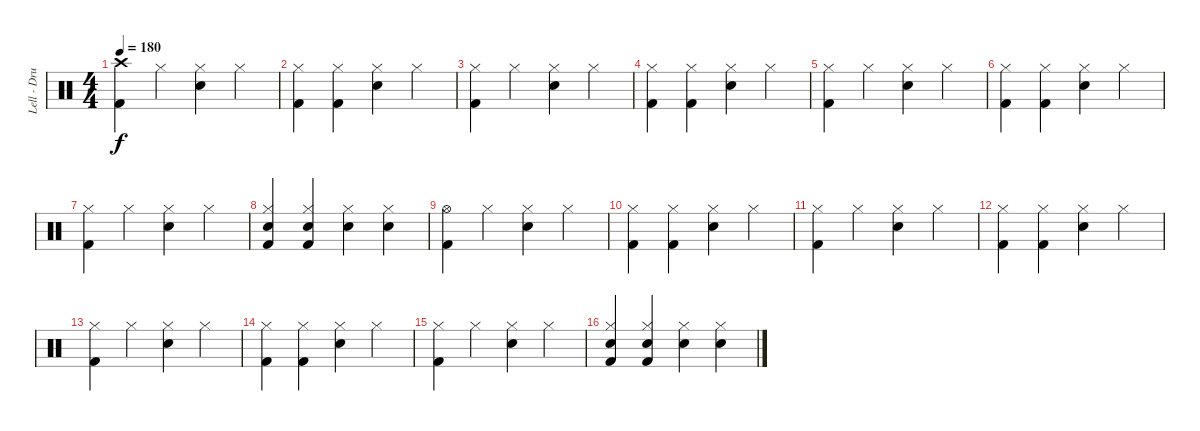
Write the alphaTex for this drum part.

\track ("Lell - Drums" "Lell - Dru") {instrument percussion}
\staff {score}
\articulation defaults
\ts (4 4)
\tempo 180
\clef neutral
\ks c
("Crash high (hit)" "Kick (hit) 2").4{dy f} "Hi-Hat (closed)".4 ("Hi-Hat (closed)" "Snare (hit) 2").4 "Hi-Hat (closed)".4 |
("Hi-Hat (closed)" "Kick (hit) 2").4 ("Hi-Hat (closed)" "Kick (hit) 2").4 ("Hi-Hat (closed)" "Snare (hit) 2").4 "Hi-Hat (closed)".4 |
("Hi-Hat (closed)" "Kick (hit) 2").4 "Hi-Hat (closed)".4 ("Hi-Hat (closed)" "Snare (hit) 2").4 "Hi-Hat (closed)".4 |
("Hi-Hat (closed)" "Kick (hit) 2").4 ("Hi-Hat (closed)" "Kick (hit) 2").4 ("Hi-Hat (closed)" "Snare (hit) 2").4 "Hi-Hat (closed)".4 |
("Hi-Hat (closed)" "Kick (hit) 2").4 "Hi-Hat (closed)".4 ("Hi-Hat (closed)" "Snare (hit) 2").4 "Hi-Hat (closed)".4 |
("Hi-Hat (closed)" "Kick (hit) 2").4 ("Hi-Hat (closed)" "Kick (hit) 2").4 ("Hi-Hat (closed)" "Snare (hit) 2").4 "Hi-Hat (closed)".4 |
("Hi-Hat (closed)" "Kick (hit) 2").4 "Hi-Hat (closed)".4 ("Hi-Hat (closed)" "Snare (hit) 2").4 "Hi-Hat (closed)".4 |
("Hi-Hat (closed)" "Snare (hit) 2" "Kick (hit) 2").4 ("Hi-Hat (closed)" "Snare (hit) 2" "Kick (hit) 2").4 ("Hi-Hat (closed)" "Snare (hit) 2").4 ("Hi-Hat (closed)" "Snare (hit) 2").4 |
("Hi-Hat (open)" "Kick (hit) 2").4 "Hi-Hat (closed)".4 ("Hi-Hat (closed)" "Snare (hit) 2").4 "Hi-Hat (closed)".4 |
("Hi-Hat (closed)" "Kick (hit) 2").4 ("Hi-Hat (closed)" "Kick (hit) 2").4 ("Hi-Hat (closed)" "Snare (hit) 2").4 "Hi-Hat (closed)".4 |
("Hi-Hat (closed)" "Kick (hit) 2").4 "Hi-Hat (closed)".4 ("Hi-Hat (closed)" "Snare (hit) 2").4 "Hi-Hat (closed)".4 |
("Hi-Hat (closed)" "Kick (hit) 2").4 ("Hi-Hat (closed)" "Kick (hit) 2").4 ("Hi-Hat (closed)" "Snare (hit) 2").4 "Hi-Hat (closed)".4 |
("Hi-Hat (closed)" "Kick (hit) 2").4 "Hi-Hat (closed)".4 ("Hi-Hat (closed)" "Snare (hit) 2").4 "Hi-Hat (closed)".4 |
("Hi-Hat (closed)" "Kick (hit) 2").4 ("Hi-Hat (closed)" "Kick (hit) 2").4 ("Hi-Hat (closed)" "Snare (hit) 2").4 "Hi-Hat (closed)".4 |
("Hi-Hat (closed)" "Kick (hit) 2").4 "Hi-Hat (closed)".4 ("Hi-Hat (closed)" "Snare (hit) 2").4 "Hi-Hat (closed)".4 |
("Hi-Hat (closed)" "Snare (hit) 2" "Kick (hit) 2").4 ("Hi-Hat (closed)" "Snare (hit) 2" "Kick (hit) 2").4 ("Hi-Hat (closed)" "Snare (hit) 2").4 ("Hi-Hat (closed)" "Snare (hit) 2").4
